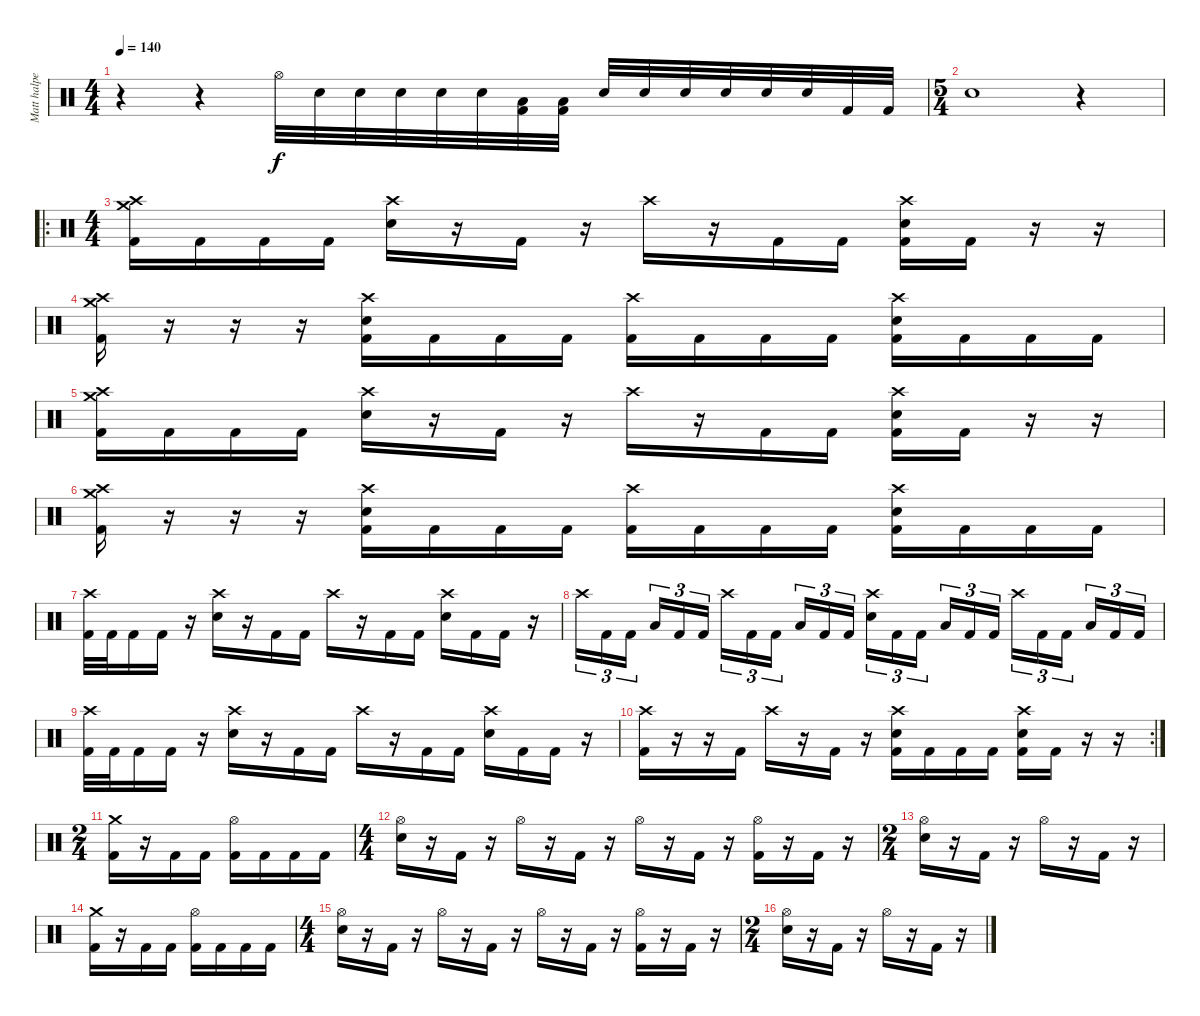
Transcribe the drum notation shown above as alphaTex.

\track ("Matt halpern" "Matt halpe") {instrument percussion}
\staff {score}
\articulation defaults
\ts (4 4)
\tempo 140
\clef neutral
\ks c
r.4{dy f} r.4 "Hi-Hat (open)".32 "Electric Snare (hit)".32 "Electric Snare (hit)".32 "Electric Snare (hit)".32 "Electric Snare (hit)".32 "Electric Snare (hit)".32 ("Low Floor Tom (hit)" "Kick (hit) 2").32 ("Low Floor Tom (hit)" "Kick (hit) 2").32 "Electric Snare (hit)".32 "Electric Snare (hit)".32 "Electric Snare (hit)".32 "Electric Snare (hit)".32 "Electric Snare (hit)".32 "Electric Snare (hit)".32 "Kick (hit) 2".32 "Kick (hit) 2".32 |
\ts (5 4)
"Electric Snare (hit)".1 r.4 |
\ro
\ts (4 4)
("Crash high (hit)" "Crash medium (hit)" "Kick (hit) 2").16 "Kick (hit) 2".16 "Kick (hit) 2".16 "Kick (hit) 2".16 ("Crash high (hit)" "Electric Snare (hit)").16 r.16 "Kick (hit) 2".16 r.16 "Crash high (hit)".16 r.16 "Kick (hit) 2".16 "Kick (hit) 2".16 ("Crash high (hit)" "Electric Snare (hit)" "Kick (hit) 2").16 "Kick (hit) 2".16 r.16 r.16 |
("Crash high (hit)" "Crash medium (hit)" "Kick (hit) 2").16 r.16 r.16 r.16 ("Crash high (hit)" "Electric Snare (hit)" "Kick (hit) 2").16 "Kick (hit) 2".16 "Kick (hit) 2".16 "Kick (hit) 2".16 ("Crash high (hit)" "Kick (hit) 2").16 "Kick (hit) 2".16 "Kick (hit) 2".16 "Kick (hit) 2".16 ("Crash high (hit)" "Electric Snare (hit)" "Kick (hit) 2").16 "Kick (hit) 2".16 "Kick (hit) 2".16 "Kick (hit) 2".16 |
("Crash high (hit)" "Crash medium (hit)" "Kick (hit) 2").16 "Kick (hit) 2".16 "Kick (hit) 2".16 "Kick (hit) 2".16 ("Crash high (hit)" "Electric Snare (hit)").16 r.16 "Kick (hit) 2".16 r.16 "Crash high (hit)".16 r.16 "Kick (hit) 2".16 "Kick (hit) 2".16 ("Crash high (hit)" "Electric Snare (hit)" "Kick (hit) 2").16 "Kick (hit) 2".16 r.16 r.16 |
("Crash high (hit)" "Crash medium (hit)" "Kick (hit) 2").16 r.16 r.16 r.16 ("Crash high (hit)" "Electric Snare (hit)" "Kick (hit) 2").16 "Kick (hit) 2".16 "Kick (hit) 2".16 "Kick (hit) 2".16 ("Crash high (hit)" "Kick (hit) 2").16 "Kick (hit) 2".16 "Kick (hit) 2".16 "Kick (hit) 2".16 ("Crash high (hit)" "Electric Snare (hit)" "Kick (hit) 2").16 "Kick (hit) 2".16 "Kick (hit) 2".16 "Kick (hit) 2".16 |
("Crash high (hit)" "Kick (hit) 2").32 "Kick (hit) 2".32 "Kick (hit) 2".16 "Kick (hit) 2".16 r.16 ("Crash high (hit)" "Electric Snare (hit)").16 r.16 "Kick (hit) 2".16 "Kick (hit) 2".16 "Crash high (hit)".16 r.16 "Kick (hit) 2".16 "Kick (hit) 2".16 ("Crash high (hit)" "Electric Snare (hit)").16 "Kick (hit) 2".16 "Kick (hit) 2".16 r.16 |
"Crash high (hit)".16{tu (3 2)} "Kick (hit) 2".16{tu (3 2)} "Kick (hit) 2".16{tu (3 2)} "Low Floor Tom (hit)".16{tu (3 2)} "Kick (hit) 2".16{tu (3 2)} "Kick (hit) 2".16{tu (3 2)} "Crash high (hit)".16{tu (3 2)} "Kick (hit) 2".16{tu (3 2)} "Kick (hit) 2".16{tu (3 2)} "Low Floor Tom (hit)".16{tu (3 2)} "Kick (hit) 2".16{tu (3 2)} "Kick (hit) 2".16{tu (3 2)} ("Crash high (hit)" "Electric Snare (hit)").16{tu (3 2)} "Kick (hit) 2".16{tu (3 2)} "Kick (hit) 2".16{tu (3 2)} "Low Floor Tom (hit)".16{tu (3 2)} "Kick (hit) 2".16{tu (3 2)} "Kick (hit) 2".16{tu (3 2)} "Crash high (hit)".16{tu (3 2)} "Kick (hit) 2".16{tu (3 2)} "Kick (hit) 2".16{tu (3 2)} "Low Floor Tom (hit)".16{tu (3 2)} "Kick (hit) 2".16{tu (3 2)} "Kick (hit) 2".16{tu (3 2)} |
("Crash high (hit)" "Kick (hit) 2").32 "Kick (hit) 2".32 "Kick (hit) 2".16 "Kick (hit) 2".16 r.16 ("Crash high (hit)" "Electric Snare (hit)").16 r.16 "Kick (hit) 2".16 "Kick (hit) 2".16 "Crash high (hit)".16 r.16 "Kick (hit) 2".16 "Kick (hit) 2".16 ("Crash high (hit)" "Electric Snare (hit)").16 "Kick (hit) 2".16 "Kick (hit) 2".16 r.16 |
\rc 2
("Crash high (hit)" "Kick (hit) 2").16 r.16 r.16 "Kick (hit) 2".16 "Crash high (hit)".16 r.16 "Kick (hit) 2".16 r.16 ("Crash high (hit)" "Electric Snare (hit)" "Kick (hit) 2").16 "Kick (hit) 2".16 "Kick (hit) 2".16 "Kick (hit) 2".16 ("Crash high (hit)" "Electric Snare (hit)" "Kick (hit) 2").16 "Kick (hit) 2".16 r.16 r.16 |
\ts (2 4)
("Crash medium (hit)" "Kick (hit) 2").16 r.16 "Kick (hit) 2".16 "Kick (hit) 2".16 ("Hi-Hat (open)" "Kick (hit) 2").16 "Kick (hit) 2".16 "Kick (hit) 2".16 "Kick (hit) 2".16 |
\ts (4 4)
("Hi-Hat (open)" "Electric Snare (hit)").16 r.16 "Kick (hit) 2".16 r.16 "Hi-Hat (open)".16 r.16 "Kick (hit) 2".16 r.16 "Hi-Hat (open)".16 r.16 "Kick (hit) 2".16 r.16 ("Hi-Hat (open)" "Kick (hit) 2").16 r.16 "Kick (hit) 2".16 r.16 |
\ts (2 4)
("Hi-Hat (open)" "Electric Snare (hit)").16 r.16 "Kick (hit) 2".16 r.16 "Hi-Hat (open)".16 r.16 "Kick (hit) 2".16 r.16 |
("Crash medium (hit)" "Kick (hit) 2").16 r.16 "Kick (hit) 2".16 "Kick (hit) 2".16 ("Hi-Hat (open)" "Kick (hit) 2").16 "Kick (hit) 2".16 "Kick (hit) 2".16 "Kick (hit) 2".16 |
\ts (4 4)
("Hi-Hat (open)" "Electric Snare (hit)").16 r.16 "Kick (hit) 2".16 r.16 "Hi-Hat (open)".16 r.16 "Kick (hit) 2".16 r.16 "Hi-Hat (open)".16 r.16 "Kick (hit) 2".16 r.16 ("Hi-Hat (open)" "Kick (hit) 2").16 r.16 "Kick (hit) 2".16 r.16 |
\ts (2 4)
("Hi-Hat (open)" "Electric Snare (hit)").16 r.16 "Kick (hit) 2".16 r.16 "Hi-Hat (open)".16 r.16 "Kick (hit) 2".16 r.16
